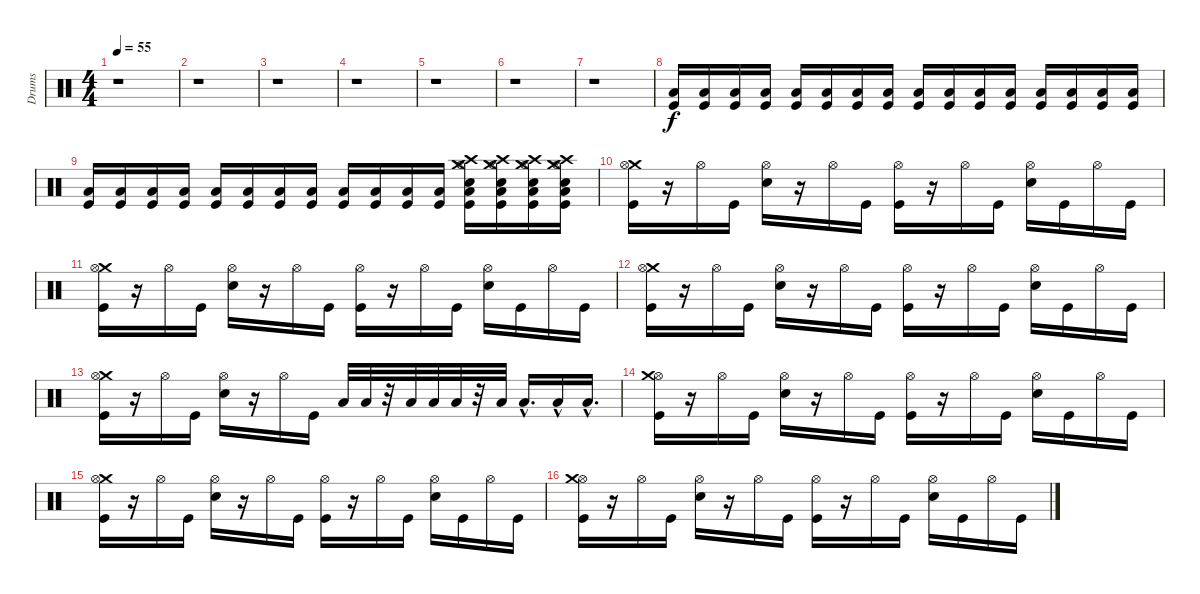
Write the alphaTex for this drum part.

\track ("Drums" "Drums") {instrument percussion}
\staff {score}
\articulation defaults
\ts (4 4)
\tempo 55
\clef neutral
\ks c
r.1{dy f} |
r.1 |
r.1 |
r.1 |
r.1 |
r.1 |
r.1 |
("Low Tom (hit)" "Kick (hit)").16{volume 6} ("Low Tom (hit)" "Kick (hit)").16{volume 6} ("Low Tom (hit)" "Kick (hit)").16{volume 7} ("Low Tom (hit)" "Kick (hit)").16{volume 7} ("Low Tom (hit)" "Kick (hit)").16{volume 7} ("Low Tom (hit)" "Kick (hit)").16{volume 8} ("Low Tom (hit)" "Kick (hit)").16{volume 8} ("Low Tom (hit)" "Kick (hit)").16{volume 8} ("Low Tom (hit)" "Kick (hit)").16{volume 8} ("Low Tom (hit)" "Kick (hit)").16{volume 9} ("Low Tom (hit)" "Kick (hit)").16{volume 9} ("Low Tom (hit)" "Kick (hit)").16{volume 9} ("Low Tom (hit)" "Kick (hit)").16{volume 9} ("Low Tom (hit)" "Kick (hit)").16{volume 10} ("Low Tom (hit)" "Kick (hit)").16{volume 10} ("Low Tom (hit)" "Kick (hit)").16{volume 10} |
("Kick (hit)" "Low Tom (hit)").16{volume 10} ("Kick (hit)" "Low Tom (hit)").16{volume 11} ("Kick (hit)" "Low Tom (hit)").16{volume 11} ("Kick (hit)" "Low Tom (hit)").16{volume 11} ("Low Tom (hit)" "Kick (hit)").16{volume 11} ("Kick (hit)" "Low Tom (hit)").16{volume 12} ("Kick (hit)" "Low Tom (hit)").16{volume 12} ("Kick (hit)" "Low Tom (hit)").16{volume 12} ("Low Tom (hit)" "Kick (hit)").16{volume 12} ("Low Tom (hit)" "Kick (hit)").16{volume 12} ("Kick (hit)" "Low Tom (hit)").16 ("Low Tom (hit)" "Kick (hit)").16 ("Hi-Hat (open)" "Low Tom (hit)" "Crash medium (hit)" "Crash high (hit)" "Electric Snare (hit)" "Kick (hit)").16 ("Hi-Hat (open)" "Crash medium (hit)" "Kick (hit)" "Low Tom (hit)" "Crash high (hit)" "Electric Snare (hit)").16 ("Hi-Hat (open)" "Kick (hit)" "Crash medium (hit)" "Electric Snare (hit)" "Crash high (hit)" "Low Tom (hit)").16 ("Hi-Hat (open)" "Crash medium (hit)" "Crash high (hit)" "Electric Snare (hit)" "Kick (hit)" "Low Tom (hit)").16 |
("Crash medium (hit)" "Kick (hit)" "Hi-Hat (open)").16 r.16 "Hi-Hat (open)".16 "Kick (hit)".16 ("Hi-Hat (open)" "Electric Snare (hit)").16 r.16 "Hi-Hat (open)".16 "Kick (hit)".16 ("Hi-Hat (open)" "Kick (hit)").16 r.16 "Hi-Hat (open)".16 "Kick (hit)".16 ("Electric Snare (hit)" "Hi-Hat (open)").16 "Kick (hit)".16 "Hi-Hat (open)".16 "Kick (hit)".16 |
("Crash medium (hit)" "Hi-Hat (open)" "Kick (hit)").16 r.16 "Hi-Hat (open)".16 "Kick (hit)".16 ("Electric Snare (hit)" "Hi-Hat (open)").16 r.16 "Hi-Hat (open)".16 "Kick (hit)".16 ("Kick (hit)" "Hi-Hat (open)").16 r.16 "Hi-Hat (open)".16 "Kick (hit)".16 ("Electric Snare (hit)" "Hi-Hat (open)").16 "Kick (hit)".16 "Hi-Hat (open)".16 "Kick (hit)".16 |
("Crash medium (hit)" "Hi-Hat (open)" "Kick (hit)").16 r.16 "Hi-Hat (open)".16 "Kick (hit)".16 ("Hi-Hat (open)" "Electric Snare (hit)").16 r.16 "Hi-Hat (open)".16 "Kick (hit)".16 ("Hi-Hat (open)" "Kick (hit)").16 r.16 "Hi-Hat (open)".16 "Kick (hit)".16 ("Hi-Hat (open)" "Electric Snare (hit)").16 "Kick (hit)".16 "Hi-Hat (open)".16 "Kick (hit)".16 |
("Crash medium (hit)" "Hi-Hat (open)" "Kick (hit)").16 r.16 "Hi-Hat (open)".16 "Kick (hit)".16 ("Electric Snare (hit)" "Hi-Hat (open)").16 r.16 "Hi-Hat (open)".16 "Kick (hit)".16 "Low Tom (hit)".32 "Low Tom (hit)".32 r.32 "Low Tom (hit)".32 "Low Tom (hit)".32 "Low Tom (hit)".32 r.32 "Low Tom (hit)".32 "Low Tom (hit)"{hac}.16{d} "Low Tom (hit)"{hac}.16 "Low Tom (hit)"{hac}.16{d} |
("Kick (hit)" "Hi-Hat (open)" "Crash medium (hit)").16 r.16 "Hi-Hat (open)".16 "Kick (hit)".16 ("Electric Snare (hit)" "Hi-Hat (open)").16 r.16 "Hi-Hat (open)".16 "Kick (hit)".16 ("Kick (hit)" "Hi-Hat (open)").16 r.16 "Hi-Hat (open)".16 "Kick (hit)".16 ("Electric Snare (hit)" "Hi-Hat (open)").16 "Kick (hit)".16 "Hi-Hat (open)".16 "Kick (hit)".16 |
("Kick (hit)" "Crash medium (hit)" "Hi-Hat (open)").16 r.16 "Hi-Hat (open)".16 "Kick (hit)".16 ("Hi-Hat (open)" "Electric Snare (hit)").16 r.16 "Hi-Hat (open)".16 "Kick (hit)".16 ("Hi-Hat (open)" "Kick (hit)").16 r.16 "Hi-Hat (open)".16 "Kick (hit)".16 ("Electric Snare (hit)" "Hi-Hat (open)").16 "Kick (hit)".16 "Hi-Hat (open)".16 "Kick (hit)".16 |
("Hi-Hat (open)" "Crash medium (hit)" "Kick (hit)").16 r.16 "Hi-Hat (open)".16 "Kick (hit)".16 ("Electric Snare (hit)" "Hi-Hat (open)").16 r.16 "Hi-Hat (open)".16 "Kick (hit)".16 ("Kick (hit)" "Hi-Hat (open)").16 r.16 "Hi-Hat (open)".16 "Kick (hit)".16 ("Hi-Hat (open)" "Electric Snare (hit)").16 "Kick (hit)".16 "Hi-Hat (open)".16 "Kick (hit)".16
